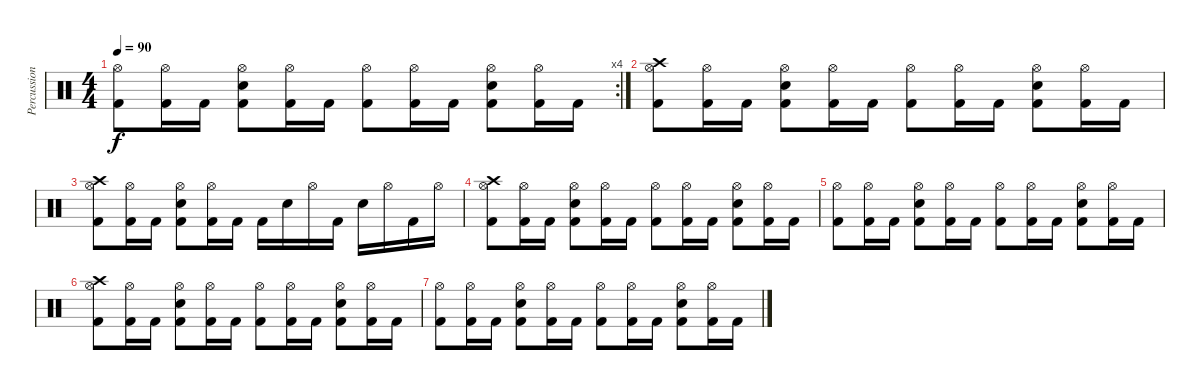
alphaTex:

\track ("Percussion " "Percussion") {instrument percussion}
\staff {score}
\articulation defaults
\rc 4
\ts (4 4)
\tempo 90
\clef neutral
\ks c
("Hi-Hat (open)" "Kick (hit) 2").8{dy f} ("Hi-Hat (open)" "Kick (hit) 2").16 "Kick (hit) 2".16 ("Hi-Hat (open)" "Snare (hit) 2" "Kick (hit) 2").8 ("Hi-Hat (open)" "Kick (hit) 2").16 "Kick (hit) 2".16 ("Hi-Hat (open)" "Kick (hit) 2").8 ("Hi-Hat (open)" "Kick (hit) 2").16 "Kick (hit) 2".16 ("Hi-Hat (open)" "Snare (hit) 2" "Kick (hit) 2").8 ("Hi-Hat (open)" "Kick (hit) 2").16 "Kick (hit) 2".16 |
("Crash high (hit)" "Hi-Hat (open)" "Kick (hit) 2").8{volume 10} ("Hi-Hat (open)" "Kick (hit) 2").16 "Kick (hit) 2".16 ("Hi-Hat (open)" "Snare (hit) 2" "Kick (hit) 2").8 ("Hi-Hat (open)" "Kick (hit) 2").16 "Kick (hit) 2".16 ("Hi-Hat (open)" "Kick (hit) 2").8 ("Hi-Hat (open)" "Kick (hit) 2").16 "Kick (hit) 2".16 ("Hi-Hat (open)" "Snare (hit) 2" "Kick (hit) 2").8 ("Hi-Hat (open)" "Kick (hit) 2").16 "Kick (hit) 2".16 |
("Crash high (hit)" "Hi-Hat (open)" "Kick (hit) 2").8 ("Hi-Hat (open)" "Kick (hit) 2").16 "Kick (hit) 2".16 ("Hi-Hat (open)" "Snare (hit) 2" "Kick (hit) 2").8 ("Hi-Hat (open)" "Kick (hit) 2").16 "Kick (hit) 2".16 "Kick (hit) 2".16 "Snare (hit) 2".16 "Hi-Hat (open)".16 "Kick (hit) 2".16 "Snare (hit) 2".16 "Hi-Hat (open)".16 "Kick (hit) 2".16 "Hi-Hat (open)".16 |
("Crash high (hit)" "Hi-Hat (open)" "Kick (hit) 2").8{volume 5} ("Hi-Hat (open)" "Kick (hit) 2").16 "Kick (hit) 2".16 ("Hi-Hat (open)" "Snare (hit) 2" "Kick (hit) 2").8 ("Hi-Hat (open)" "Kick (hit) 2").16 "Kick (hit) 2".16 ("Hi-Hat (open)" "Kick (hit) 2").8 ("Hi-Hat (open)" "Kick (hit) 2").16 "Kick (hit) 2".16 ("Hi-Hat (open)" "Snare (hit) 2" "Kick (hit) 2").8 ("Hi-Hat (open)" "Kick (hit) 2").16 "Kick (hit) 2".16 |
("Hi-Hat (open)" "Kick (hit) 2").8 ("Hi-Hat (open)" "Kick (hit) 2").16 "Kick (hit) 2".16 ("Hi-Hat (open)" "Snare (hit) 2" "Kick (hit) 2").8 ("Hi-Hat (open)" "Kick (hit) 2").16 "Kick (hit) 2".16 ("Hi-Hat (open)" "Kick (hit) 2").8 ("Hi-Hat (open)" "Kick (hit) 2").16 "Kick (hit) 2".16 ("Hi-Hat (open)" "Snare (hit) 2" "Kick (hit) 2").8 ("Hi-Hat (open)" "Kick (hit) 2").16 "Kick (hit) 2".16 |
("Crash high (hit)" "Hi-Hat (open)" "Kick (hit) 2").8{volume 0} ("Hi-Hat (open)" "Kick (hit) 2").16 "Kick (hit) 2".16 ("Hi-Hat (open)" "Snare (hit) 2" "Kick (hit) 2").8 ("Hi-Hat (open)" "Kick (hit) 2").16 "Kick (hit) 2".16 ("Hi-Hat (open)" "Kick (hit) 2").8 ("Hi-Hat (open)" "Kick (hit) 2").16 "Kick (hit) 2".16 ("Hi-Hat (open)" "Snare (hit) 2" "Kick (hit) 2").8 ("Hi-Hat (open)" "Kick (hit) 2").16 "Kick (hit) 2".16 |
("Hi-Hat (open)" "Kick (hit) 2").8 ("Hi-Hat (open)" "Kick (hit) 2").16 "Kick (hit) 2".16 ("Hi-Hat (open)" "Snare (hit) 2" "Kick (hit) 2").8 ("Hi-Hat (open)" "Kick (hit) 2").16 "Kick (hit) 2".16 ("Hi-Hat (open)" "Kick (hit) 2").8 ("Hi-Hat (open)" "Kick (hit) 2").16 "Kick (hit) 2".16 ("Hi-Hat (open)" "Snare (hit) 2" "Kick (hit) 2").8 ("Hi-Hat (open)" "Kick (hit) 2").16 "Kick (hit) 2".16
